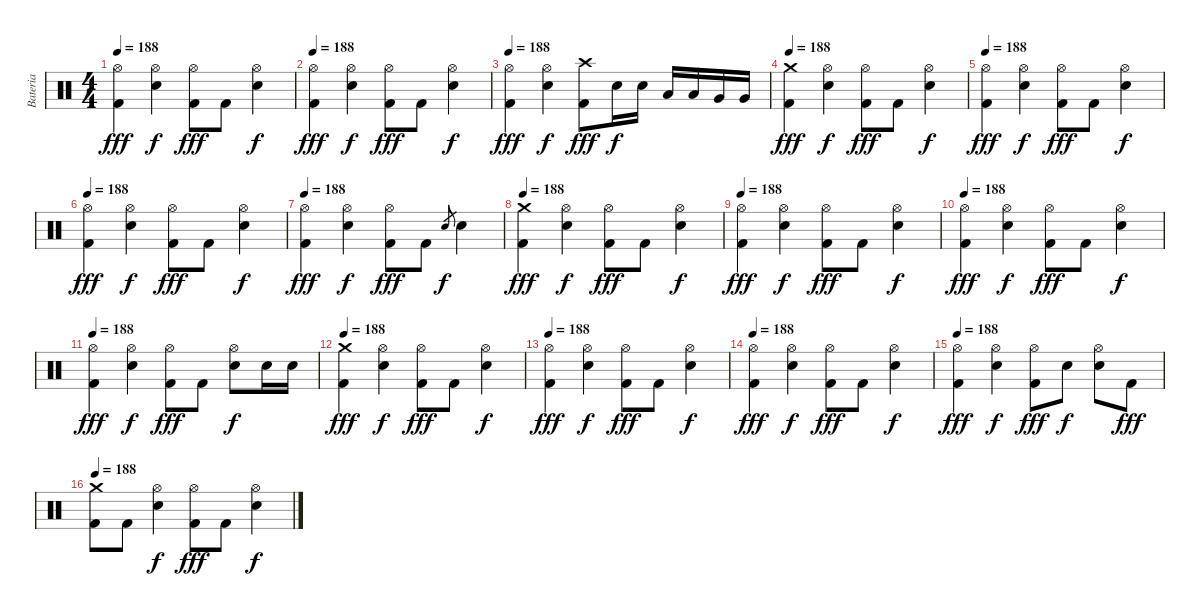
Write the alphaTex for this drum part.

\track ("Bateria" "Bateria") {instrument percussion}
\staff {score}
\articulation defaults
\ts (4 4)
\tempo 188
\clef neutral
\ks c
("Hi-Hat (open)" "Kick (hit) 2").4{dy fff} ("Hi-Hat (open)" "Electric Snare (hit)").4{dy f} ("Hi-Hat (open)" "Kick (hit) 2").8{dy fff} "Kick (hit) 2".8 ("Hi-Hat (open)" "Electric Snare (hit)").4{dy f} |
\tempo 188
("Hi-Hat (open)" "Kick (hit) 2").4{dy fff} ("Hi-Hat (open)" "Electric Snare (hit)").4{dy f} ("Hi-Hat (open)" "Kick (hit) 2").8{dy fff} "Kick (hit) 2".8 ("Hi-Hat (open)" "Electric Snare (hit)").4{dy f} |
\tempo 188
("Hi-Hat (open)" "Kick (hit) 2").4{dy fff} ("Hi-Hat (open)" "Electric Snare (hit)").4{dy f} ("Crash high (hit)" "Kick (hit) 2").8{dy fff} "Electric Snare (hit)".16{dy f} "Electric Snare (hit)".16 "Low Tom (hit)".16 "Low Tom (hit)".16 "Very Low Tom (hit)".16 "Very Low Tom (hit)".16 |
\tempo 188
("Crash medium (hit)" "Kick (hit) 2").4{dy fff} ("Hi-Hat (open)" "Electric Snare (hit)").4{dy f} ("Hi-Hat (open)" "Kick (hit) 2").8{dy fff} "Kick (hit) 2".8 ("Hi-Hat (open)" "Electric Snare (hit)").4{dy f} |
\tempo 188
("Hi-Hat (open)" "Kick (hit) 2").4{dy fff} ("Hi-Hat (open)" "Electric Snare (hit)").4{dy f} ("Hi-Hat (open)" "Kick (hit) 2").8{dy fff} "Kick (hit) 2".8 ("Hi-Hat (open)" "Electric Snare (hit)").4{dy f} |
\tempo 188
("Hi-Hat (open)" "Kick (hit) 2").4{dy fff} ("Hi-Hat (open)" "Electric Snare (hit)").4{dy f} ("Hi-Hat (open)" "Kick (hit) 2").8{dy fff} "Kick (hit) 2".8 ("Hi-Hat (open)" "Electric Snare (hit)").4{dy f} |
\tempo 188
("Hi-Hat (open)" "Kick (hit) 2").4{dy fff} ("Hi-Hat (open)" "Electric Snare (hit)").4{dy f} ("Hi-Hat (open)" "Kick (hit) 2").8{dy fff} "Kick (hit) 2".8 "Electric Snare (hit)".8{gr dy f} "Electric Snare (hit)".4 |
\tempo 188
("Crash medium (hit)" "Kick (hit) 2").4{dy fff} ("Hi-Hat (open)" "Electric Snare (hit)").4{dy f} ("Hi-Hat (open)" "Kick (hit) 2").8{dy fff} "Kick (hit) 2".8 ("Hi-Hat (open)" "Electric Snare (hit)").4{dy f} |
\tempo 188
("Hi-Hat (open)" "Kick (hit) 2").4{dy fff} ("Hi-Hat (open)" "Electric Snare (hit)").4{dy f} ("Hi-Hat (open)" "Kick (hit) 2").8{dy fff} "Kick (hit) 2".8 ("Hi-Hat (open)" "Electric Snare (hit)").4{dy f} |
\tempo 188
("Hi-Hat (open)" "Kick (hit) 2").4{dy fff} ("Hi-Hat (open)" "Electric Snare (hit)").4{dy f} ("Hi-Hat (open)" "Kick (hit) 2").8{dy fff} "Kick (hit) 2".8 ("Hi-Hat (open)" "Electric Snare (hit)").4{dy f} |
\tempo 188
("Hi-Hat (open)" "Kick (hit) 2").4{dy fff} ("Hi-Hat (open)" "Electric Snare (hit)").4{dy f} ("Hi-Hat (open)" "Kick (hit) 2").8{dy fff} "Kick (hit) 2".8 ("Hi-Hat (open)" "Electric Snare (hit)").8{dy f} "Electric Snare (hit)".16 "Electric Snare (hit)".16 |
\tempo 188
("Crash medium (hit)" "Kick (hit) 2").4{dy fff} ("Hi-Hat (open)" "Electric Snare (hit)").4{dy f} ("Hi-Hat (open)" "Kick (hit) 2").8{dy fff} "Kick (hit) 2".8 ("Hi-Hat (open)" "Electric Snare (hit)").4{dy f} |
\tempo 188
("Hi-Hat (open)" "Kick (hit) 2").4{dy fff} ("Hi-Hat (open)" "Electric Snare (hit)").4{dy f} ("Hi-Hat (open)" "Kick (hit) 2").8{dy fff} "Kick (hit) 2".8 ("Hi-Hat (open)" "Electric Snare (hit)").4{dy f} |
\tempo 188
("Hi-Hat (open)" "Kick (hit) 2").4{dy fff} ("Hi-Hat (open)" "Electric Snare (hit)").4{dy f} ("Hi-Hat (open)" "Kick (hit) 2").8{dy fff} "Kick (hit) 2".8 ("Hi-Hat (open)" "Electric Snare (hit)").4{dy f} |
\tempo 188
("Hi-Hat (open)" "Kick (hit) 2").4{dy fff} ("Hi-Hat (open)" "Electric Snare (hit)").4{dy f} ("Hi-Hat (open)" "Kick (hit) 2").8{dy fff} "Electric Snare (hit)".8{dy f} ("Hi-Hat (open)" "Electric Snare (hit)").8 "Kick (hit) 2".8{dy fff} |
\tempo 188
("Crash medium (hit)" "Kick (hit) 2").8 "Kick (hit) 2".8 ("Hi-Hat (open)" "Electric Snare (hit)").4{dy f} ("Hi-Hat (open)" "Kick (hit) 2").8{dy fff} "Kick (hit) 2".8 ("Hi-Hat (open)" "Electric Snare (hit)").4{dy f}
